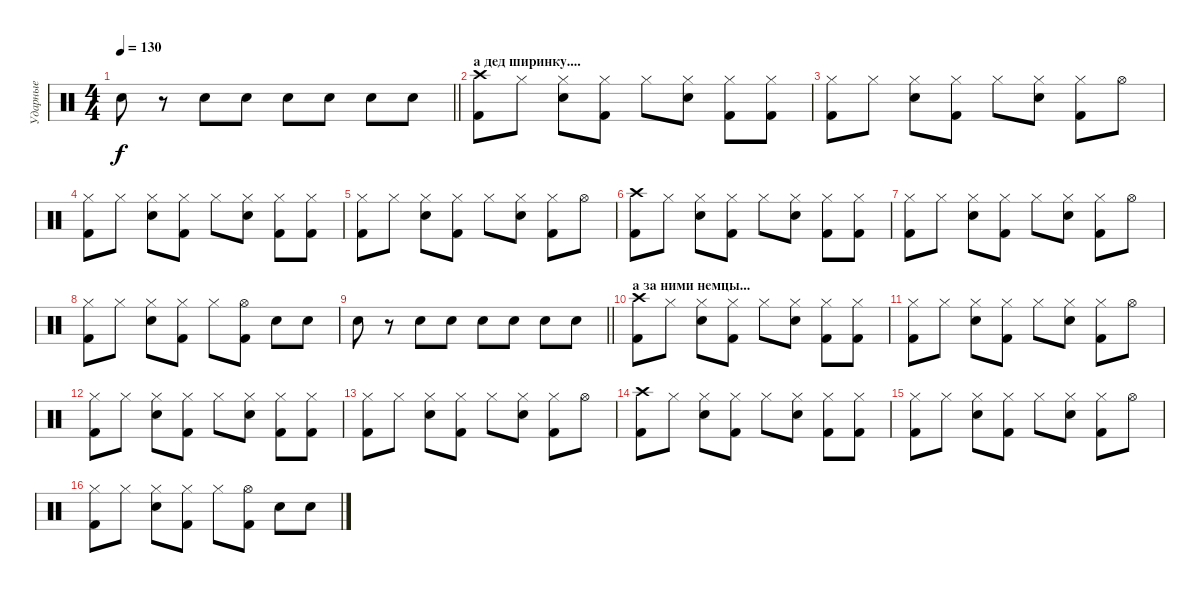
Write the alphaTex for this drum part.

\track ("Ударные" "Ударные") {instrument percussion}
\staff {score}
\articulation defaults
\ts (4 4)
\tempo 130
\clef neutral
\barLineRight lightlight
\ks c "Snare (hit) 2".8{dy f}
r.8 "Snare (hit) 2".8 "Snare (hit) 2".8 "Snare (hit) 2".8 "Snare (hit) 2".8 "Snare (hit) 2".8 "Snare (hit) 2".8 |
\section ("" "а дед ширинку....")
("Crash high (hit)" "Kick (hit) 2").8 "Hi-Hat (closed)".8 ("Hi-Hat (closed)" "Snare (hit) 2").8 ("Hi-Hat (closed)" "Kick (hit) 2").8 "Hi-Hat (closed)".8 ("Hi-Hat (closed)" "Snare (hit) 2").8 ("Hi-Hat (closed)" "Kick (hit) 2").8 ("Hi-Hat (closed)" "Kick (hit) 2").8 |
("Hi-Hat (closed)" "Kick (hit) 2").8 "Hi-Hat (closed)".8 ("Hi-Hat (closed)" "Snare (hit) 2").8 ("Hi-Hat (closed)" "Kick (hit) 2").8 "Hi-Hat (closed)".8 ("Hi-Hat (closed)" "Snare (hit) 2").8 ("Hi-Hat (closed)" "Kick (hit) 2").8 "Hi-Hat (open)".8 |
("Hi-Hat (closed)" "Kick (hit) 2").8 "Hi-Hat (closed)".8 ("Hi-Hat (closed)" "Snare (hit) 2").8 ("Hi-Hat (closed)" "Kick (hit) 2").8 "Hi-Hat (closed)".8 ("Hi-Hat (closed)" "Snare (hit) 2").8 ("Hi-Hat (closed)" "Kick (hit) 2").8 ("Hi-Hat (closed)" "Kick (hit) 2").8 |
("Hi-Hat (closed)" "Kick (hit) 2").8 "Hi-Hat (closed)".8 ("Hi-Hat (closed)" "Snare (hit) 2").8 ("Hi-Hat (closed)" "Kick (hit) 2").8 "Hi-Hat (closed)".8 ("Hi-Hat (closed)" "Snare (hit) 2").8 ("Hi-Hat (closed)" "Kick (hit) 2").8 "Hi-Hat (open)".8 |
("Crash high (hit)" "Kick (hit) 2").8 "Hi-Hat (closed)".8 ("Hi-Hat (closed)" "Snare (hit) 2").8 ("Hi-Hat (closed)" "Kick (hit) 2").8 "Hi-Hat (closed)".8 ("Hi-Hat (closed)" "Snare (hit) 2").8 ("Hi-Hat (closed)" "Kick (hit) 2").8 ("Hi-Hat (closed)" "Kick (hit) 2").8 |
("Hi-Hat (closed)" "Kick (hit) 2").8 "Hi-Hat (closed)".8 ("Hi-Hat (closed)" "Snare (hit) 2").8 ("Hi-Hat (closed)" "Kick (hit) 2").8 "Hi-Hat (closed)".8 ("Hi-Hat (closed)" "Snare (hit) 2").8 ("Hi-Hat (closed)" "Kick (hit) 2").8 "Hi-Hat (open)".8 |
("Hi-Hat (closed)" "Kick (hit) 2").8 "Hi-Hat (closed)".8 ("Hi-Hat (closed)" "Snare (hit) 2").8 ("Hi-Hat (closed)" "Kick (hit) 2").8 "Hi-Hat (closed)".8 ("Hi-Hat (open)" "Kick (hit) 2").8 "Snare (hit) 2".8 "Snare (hit) 2".8 |
\barLineRight lightlight "Snare (hit) 2".8
r.8 "Snare (hit) 2".8 "Snare (hit) 2".8 "Snare (hit) 2".8 "Snare (hit) 2".8 "Snare (hit) 2".8 "Snare (hit) 2".8 |
\section ("" "а за ними немцы...")
("Crash high (hit)" "Kick (hit) 2").8 "Hi-Hat (closed)".8 ("Hi-Hat (closed)" "Snare (hit) 2").8 ("Hi-Hat (closed)" "Kick (hit) 2").8 "Hi-Hat (closed)".8 ("Hi-Hat (closed)" "Snare (hit) 2").8 ("Hi-Hat (closed)" "Kick (hit) 2").8 ("Hi-Hat (closed)" "Kick (hit) 2").8 |
("Hi-Hat (closed)" "Kick (hit) 2").8 "Hi-Hat (closed)".8 ("Hi-Hat (closed)" "Snare (hit) 2").8 ("Hi-Hat (closed)" "Kick (hit) 2").8 "Hi-Hat (closed)".8 ("Hi-Hat (closed)" "Snare (hit) 2").8 ("Hi-Hat (closed)" "Kick (hit) 2").8 "Hi-Hat (open)".8 |
("Hi-Hat (closed)" "Kick (hit) 2").8 "Hi-Hat (closed)".8 ("Hi-Hat (closed)" "Snare (hit) 2").8 ("Hi-Hat (closed)" "Kick (hit) 2").8 "Hi-Hat (closed)".8 ("Hi-Hat (closed)" "Snare (hit) 2").8 ("Hi-Hat (closed)" "Kick (hit) 2").8 ("Hi-Hat (closed)" "Kick (hit) 2").8 |
("Hi-Hat (closed)" "Kick (hit) 2").8 "Hi-Hat (closed)".8 ("Hi-Hat (closed)" "Snare (hit) 2").8 ("Hi-Hat (closed)" "Kick (hit) 2").8 "Hi-Hat (closed)".8 ("Hi-Hat (closed)" "Snare (hit) 2").8 ("Hi-Hat (closed)" "Kick (hit) 2").8 "Hi-Hat (open)".8 |
("Crash high (hit)" "Kick (hit) 2").8 "Hi-Hat (closed)".8 ("Hi-Hat (closed)" "Snare (hit) 2").8 ("Hi-Hat (closed)" "Kick (hit) 2").8 "Hi-Hat (closed)".8 ("Hi-Hat (closed)" "Snare (hit) 2").8 ("Hi-Hat (closed)" "Kick (hit) 2").8 ("Hi-Hat (closed)" "Kick (hit) 2").8 |
("Hi-Hat (closed)" "Kick (hit) 2").8 "Hi-Hat (closed)".8 ("Hi-Hat (closed)" "Snare (hit) 2").8 ("Hi-Hat (closed)" "Kick (hit) 2").8 "Hi-Hat (closed)".8 ("Hi-Hat (closed)" "Snare (hit) 2").8 ("Hi-Hat (closed)" "Kick (hit) 2").8 "Hi-Hat (open)".8 |
("Hi-Hat (closed)" "Kick (hit) 2").8 "Hi-Hat (closed)".8 ("Hi-Hat (closed)" "Snare (hit) 2").8 ("Hi-Hat (closed)" "Kick (hit) 2").8 "Hi-Hat (closed)".8 ("Hi-Hat (open)" "Kick (hit) 2").8 "Snare (hit) 2".8 "Snare (hit) 2".8
